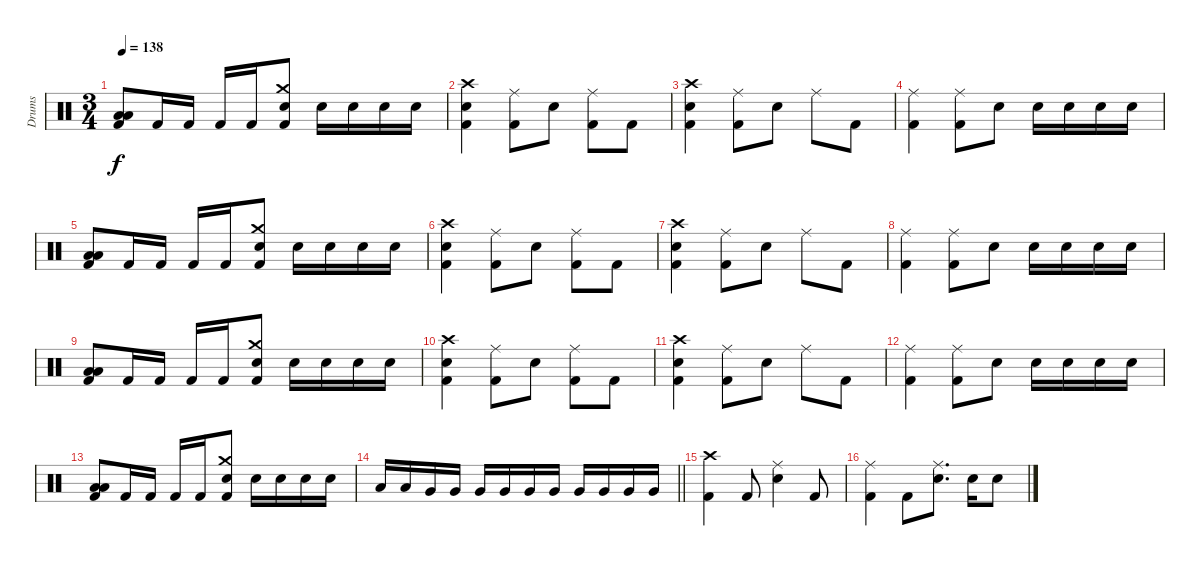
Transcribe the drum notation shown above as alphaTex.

\track ("Drums" "Drums") {instrument percussion}
\staff {score}
\articulation defaults
\ts (3 4)
\tempo 138
\clef neutral
\ks c
("Low Tom (hit)" "Low Tom (hit)" "Kick (hit) 2").8{dy f} "Kick (hit) 2".16 "Kick (hit) 2".16 "Kick (hit) 2".16 "Kick (hit) 2".16 ("Crash medium (hit)" "Electric Snare (hit)" "Kick (hit) 2").8 "Electric Snare (hit)".16 "Electric Snare (hit)".16 "Electric Snare (hit)".16 "Electric Snare (hit)".16 |
("Crash high (hit)" "Electric Snare (hit)" "Kick (hit) 2").4 ("Ride (middle)" "Kick (hit) 2").8 "Electric Snare (hit)".8 ("Ride (middle)" "Kick (hit) 2").8 "Kick (hit) 2".8 |
("Crash high (hit)" "Electric Snare (hit)" "Kick (hit) 2").4 ("Ride (middle)" "Kick (hit) 2").8 "Electric Snare (hit)".8 "Ride (middle)".8 "Kick (hit) 2".8 |
("Ride (middle)" "Kick (hit) 2").4 ("Ride (middle)" "Kick (hit) 2").8 "Electric Snare (hit)".8 "Electric Snare (hit)".16 "Electric Snare (hit)".16 "Electric Snare (hit)".16 "Electric Snare (hit)".16 |
("Low Tom (hit)" "Low Tom (hit)" "Kick (hit) 2").8 "Kick (hit) 2".16 "Kick (hit) 2".16 "Kick (hit) 2".16 "Kick (hit) 2".16 ("Crash medium (hit)" "Electric Snare (hit)" "Kick (hit) 2").8 "Electric Snare (hit)".16 "Electric Snare (hit)".16 "Electric Snare (hit)".16 "Electric Snare (hit)".16 |
("Crash high (hit)" "Electric Snare (hit)" "Kick (hit) 2").4 ("Ride (middle)" "Kick (hit) 2").8 "Electric Snare (hit)".8 ("Ride (middle)" "Kick (hit) 2").8 "Kick (hit) 2".8 |
("Crash high (hit)" "Electric Snare (hit)" "Kick (hit) 2").4 ("Ride (middle)" "Kick (hit) 2").8 "Electric Snare (hit)".8 "Ride (middle)".8 "Kick (hit) 2".8 |
("Ride (middle)" "Kick (hit) 2").4 ("Ride (middle)" "Kick (hit) 2").8 "Electric Snare (hit)".8 "Electric Snare (hit)".16 "Electric Snare (hit)".16 "Electric Snare (hit)".16 "Electric Snare (hit)".16 |
("Low Tom (hit)" "Low Tom (hit)" "Kick (hit) 2").8 "Kick (hit) 2".16 "Kick (hit) 2".16 "Kick (hit) 2".16 "Kick (hit) 2".16 ("Crash medium (hit)" "Electric Snare (hit)" "Kick (hit) 2").8 "Electric Snare (hit)".16 "Electric Snare (hit)".16 "Electric Snare (hit)".16 "Electric Snare (hit)".16 |
("Crash high (hit)" "Electric Snare (hit)" "Kick (hit) 2").4 ("Ride (middle)" "Kick (hit) 2").8 "Electric Snare (hit)".8 ("Ride (middle)" "Kick (hit) 2").8 "Kick (hit) 2".8 |
("Crash high (hit)" "Electric Snare (hit)" "Kick (hit) 2").4 ("Ride (middle)" "Kick (hit) 2").8 "Electric Snare (hit)".8 "Ride (middle)".8 "Kick (hit) 2".8 |
("Ride (middle)" "Kick (hit) 2").4 ("Ride (middle)" "Kick (hit) 2").8 "Electric Snare (hit)".8 "Electric Snare (hit)".16 "Electric Snare (hit)".16 "Electric Snare (hit)".16 "Electric Snare (hit)".16 |
("Low Tom (hit)" "Low Tom (hit)" "Kick (hit) 2").8 "Kick (hit) 2".16 "Kick (hit) 2".16 "Kick (hit) 2".16 "Kick (hit) 2".16 ("Crash medium (hit)" "Electric Snare (hit)" "Kick (hit) 2").8 "Electric Snare (hit)".16 "Electric Snare (hit)".16 "Electric Snare (hit)".16 "Electric Snare (hit)".16 |
\barLineRight lightlight "Low Tom (hit)".16 "Low Tom (hit)".16 "Very Low Tom (hit)".16 "Very Low Tom (hit)".16 "Very Low Tom (hit)".16 "Very Low Tom (hit)".16 "Very Low Tom (hit)".16 "Very Low Tom (hit)".16 "Very Low Tom (hit)".16 "Very Low Tom (hit)".16 "Very Low Tom (hit)".16 "Very Low Tom (hit)".16
|
("Crash high (hit)" "Kick (hit) 2").4 "Kick (hit) 2".8 ("Ride (middle)" "Electric Snare (hit)").4 "Kick (hit) 2".8 |
("Ride (middle)" "Kick (hit) 2").4 "Kick (hit) 2".8 ("Ride (middle)" "Electric Snare (hit)").8{d} "Electric Snare (hit)".16 "Electric Snare (hit)".8
